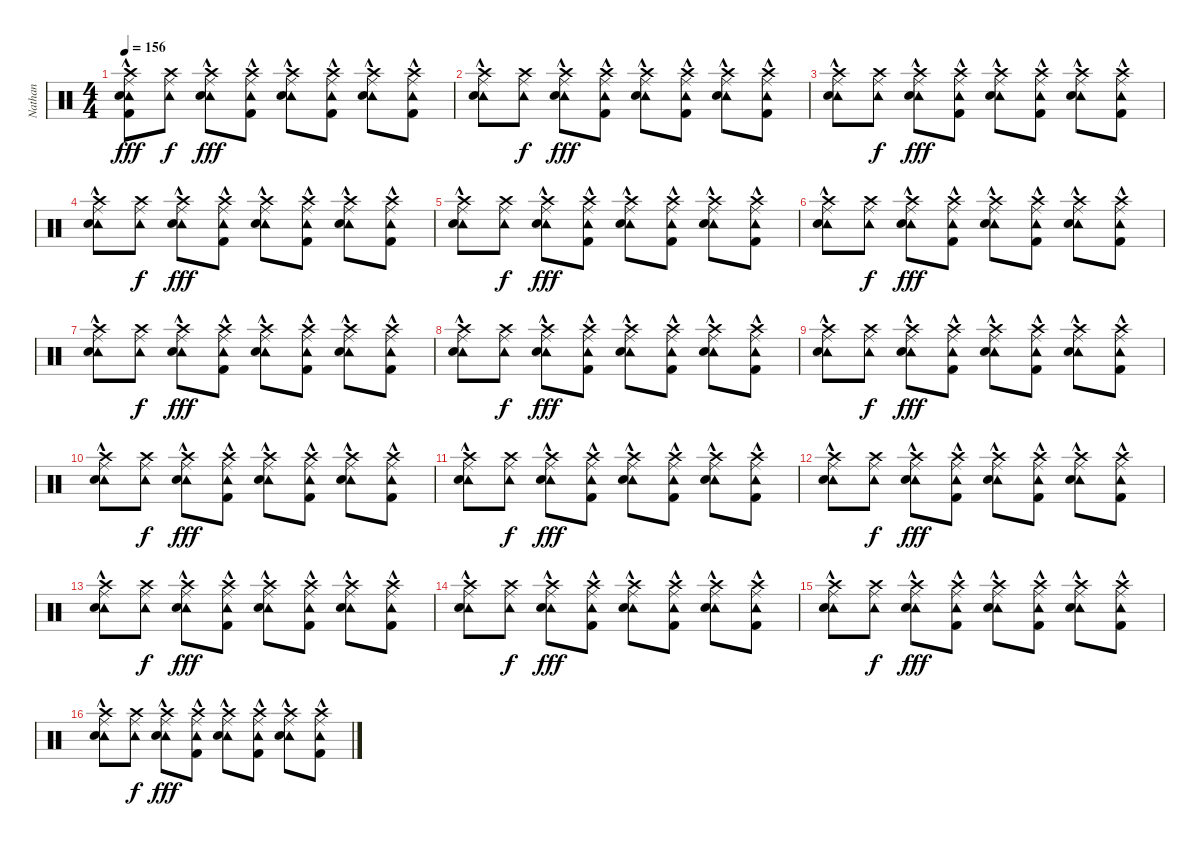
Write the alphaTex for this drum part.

\track ("Nathan" "Nathan") {instrument percussion}
\staff {score}
\articulation defaults
\ts (4 4)
\tempo 156
\clef neutral
\ks c
("Crash high (hit)" "Ride (middle)" "Tambourine (hit)" "Snare (hit) 2"{hac} "Kick (hit) 2"{hac}).8{dy fff} ("Crash high (hit)" "Ride (middle)" "Tambourine (hit)").8{dy f} ("Crash high (hit)" "Ride (middle)" "Tambourine (hit)" "Snare (hit) 2"{hac}).8{dy fff} ("Crash high (hit)" "Ride (middle)" "Tambourine (hit)" "Kick (hit) 2"{hac}).8 ("Crash high (hit)" "Ride (middle)" "Tambourine (hit)" "Snare (hit) 2"{hac}).8 ("Crash high (hit)" "Ride (middle)" "Tambourine (hit)" "Kick (hit) 2"{hac}).8 ("Crash high (hit)" "Ride (middle)" "Tambourine (hit)" "Snare (hit) 2"{hac}).8 ("Crash high (hit)" "Ride (middle)" "Tambourine (hit)" "Kick (hit) 2"{hac}).8 |
("Crash high (hit)" "Ride (middle)" "Tambourine (hit)" "Snare (hit) 2"{hac}).8 ("Crash high (hit)" "Ride (middle)" "Tambourine (hit)").8{dy f} ("Crash high (hit)" "Ride (middle)" "Tambourine (hit)" "Snare (hit) 2"{hac}).8{dy fff} ("Crash high (hit)" "Ride (middle)" "Tambourine (hit)" "Kick (hit) 2"{hac}).8 ("Crash high (hit)" "Ride (middle)" "Tambourine (hit)" "Snare (hit) 2"{hac}).8 ("Crash high (hit)" "Ride (middle)" "Tambourine (hit)" "Kick (hit) 2"{hac}).8 ("Crash high (hit)" "Ride (middle)" "Tambourine (hit)" "Snare (hit) 2"{hac}).8 ("Crash high (hit)" "Ride (middle)" "Tambourine (hit)" "Kick (hit) 2"{hac}).8 |
("Crash high (hit)" "Ride (middle)" "Tambourine (hit)" "Snare (hit) 2"{hac}).8 ("Crash high (hit)" "Ride (middle)" "Tambourine (hit)").8{dy f} ("Crash high (hit)" "Ride (middle)" "Tambourine (hit)" "Snare (hit) 2"{hac}).8{dy fff} ("Crash high (hit)" "Ride (middle)" "Tambourine (hit)" "Kick (hit) 2"{hac}).8 ("Crash high (hit)" "Ride (middle)" "Tambourine (hit)" "Snare (hit) 2"{hac}).8 ("Crash high (hit)" "Ride (middle)" "Tambourine (hit)" "Kick (hit) 2"{hac}).8 ("Crash high (hit)" "Ride (middle)" "Tambourine (hit)" "Snare (hit) 2"{hac}).8 ("Crash high (hit)" "Ride (middle)" "Tambourine (hit)" "Kick (hit) 2"{hac}).8 |
("Crash high (hit)" "Ride (middle)" "Tambourine (hit)" "Snare (hit) 2"{hac}).8 ("Crash high (hit)" "Ride (middle)" "Tambourine (hit)").8{dy f} ("Crash high (hit)" "Ride (middle)" "Tambourine (hit)" "Snare (hit) 2"{hac}).8{dy fff} ("Crash high (hit)" "Ride (middle)" "Tambourine (hit)" "Kick (hit) 2"{hac}).8 ("Crash high (hit)" "Ride (middle)" "Tambourine (hit)" "Snare (hit) 2"{hac}).8 ("Crash high (hit)" "Ride (middle)" "Tambourine (hit)" "Kick (hit) 2"{hac}).8 ("Crash high (hit)" "Ride (middle)" "Tambourine (hit)" "Snare (hit) 2"{hac}).8 ("Crash high (hit)" "Ride (middle)" "Tambourine (hit)" "Kick (hit) 2"{hac}).8 |
("Crash high (hit)" "Ride (middle)" "Tambourine (hit)" "Snare (hit) 2"{hac}).8 ("Crash high (hit)" "Ride (middle)" "Tambourine (hit)").8{dy f} ("Crash high (hit)" "Ride (middle)" "Tambourine (hit)" "Snare (hit) 2"{hac}).8{dy fff} ("Crash high (hit)" "Ride (middle)" "Tambourine (hit)" "Kick (hit) 2"{hac}).8 ("Crash high (hit)" "Ride (middle)" "Tambourine (hit)" "Snare (hit) 2"{hac}).8 ("Crash high (hit)" "Ride (middle)" "Tambourine (hit)" "Kick (hit) 2"{hac}).8 ("Crash high (hit)" "Ride (middle)" "Tambourine (hit)" "Snare (hit) 2"{hac}).8 ("Crash high (hit)" "Ride (middle)" "Tambourine (hit)" "Kick (hit) 2"{hac}).8 |
("Crash high (hit)" "Ride (middle)" "Tambourine (hit)" "Snare (hit) 2"{hac}).8 ("Crash high (hit)" "Ride (middle)" "Tambourine (hit)").8{dy f} ("Crash high (hit)" "Ride (middle)" "Tambourine (hit)" "Snare (hit) 2"{hac}).8{dy fff} ("Crash high (hit)" "Ride (middle)" "Tambourine (hit)" "Kick (hit) 2"{hac}).8 ("Crash high (hit)" "Ride (middle)" "Tambourine (hit)" "Snare (hit) 2"{hac}).8 ("Crash high (hit)" "Ride (middle)" "Tambourine (hit)" "Kick (hit) 2"{hac}).8 ("Crash high (hit)" "Ride (middle)" "Tambourine (hit)" "Snare (hit) 2"{hac}).8 ("Crash high (hit)" "Ride (middle)" "Tambourine (hit)" "Kick (hit) 2"{hac}).8 |
("Crash high (hit)" "Ride (middle)" "Tambourine (hit)" "Snare (hit) 2"{hac}).8 ("Crash high (hit)" "Ride (middle)" "Tambourine (hit)").8{dy f} ("Crash high (hit)" "Ride (middle)" "Tambourine (hit)" "Snare (hit) 2"{hac}).8{dy fff} ("Crash high (hit)" "Ride (middle)" "Tambourine (hit)" "Kick (hit) 2"{hac}).8 ("Crash high (hit)" "Ride (middle)" "Tambourine (hit)" "Snare (hit) 2"{hac}).8 ("Crash high (hit)" "Ride (middle)" "Tambourine (hit)" "Kick (hit) 2"{hac}).8 ("Crash high (hit)" "Ride (middle)" "Tambourine (hit)" "Snare (hit) 2"{hac}).8 ("Crash high (hit)" "Ride (middle)" "Tambourine (hit)" "Kick (hit) 2"{hac}).8 |
("Crash high (hit)" "Ride (middle)" "Tambourine (hit)" "Snare (hit) 2"{hac}).8 ("Crash high (hit)" "Ride (middle)" "Tambourine (hit)").8{dy f} ("Crash high (hit)" "Ride (middle)" "Tambourine (hit)" "Snare (hit) 2"{hac}).8{dy fff} ("Crash high (hit)" "Ride (middle)" "Tambourine (hit)" "Kick (hit) 2"{hac}).8 ("Crash high (hit)" "Ride (middle)" "Tambourine (hit)" "Snare (hit) 2"{hac}).8 ("Crash high (hit)" "Ride (middle)" "Tambourine (hit)" "Kick (hit) 2"{hac}).8 ("Crash high (hit)" "Ride (middle)" "Tambourine (hit)" "Snare (hit) 2"{hac}).8 ("Crash high (hit)" "Ride (middle)" "Tambourine (hit)" "Kick (hit) 2"{hac}).8 |
("Crash high (hit)" "Ride (middle)" "Tambourine (hit)" "Snare (hit) 2"{hac}).8 ("Crash high (hit)" "Ride (middle)" "Tambourine (hit)").8{dy f} ("Crash high (hit)" "Ride (middle)" "Tambourine (hit)" "Snare (hit) 2"{hac}).8{dy fff} ("Crash high (hit)" "Ride (middle)" "Tambourine (hit)" "Kick (hit) 2"{hac}).8 ("Crash high (hit)" "Ride (middle)" "Tambourine (hit)" "Snare (hit) 2"{hac}).8 ("Crash high (hit)" "Ride (middle)" "Tambourine (hit)" "Kick (hit) 2"{hac}).8 ("Crash high (hit)" "Ride (middle)" "Tambourine (hit)" "Snare (hit) 2"{hac}).8 ("Crash high (hit)" "Ride (middle)" "Tambourine (hit)" "Kick (hit) 2"{hac}).8 |
("Crash high (hit)" "Ride (middle)" "Tambourine (hit)" "Snare (hit) 2"{hac}).8 ("Crash high (hit)" "Ride (middle)" "Tambourine (hit)").8{dy f} ("Crash high (hit)" "Ride (middle)" "Tambourine (hit)" "Snare (hit) 2"{hac}).8{dy fff} ("Crash high (hit)" "Ride (middle)" "Tambourine (hit)" "Kick (hit) 2"{hac}).8 ("Crash high (hit)" "Ride (middle)" "Tambourine (hit)" "Snare (hit) 2"{hac}).8 ("Crash high (hit)" "Ride (middle)" "Tambourine (hit)" "Kick (hit) 2"{hac}).8 ("Crash high (hit)" "Ride (middle)" "Tambourine (hit)" "Snare (hit) 2"{hac}).8 ("Crash high (hit)" "Ride (middle)" "Tambourine (hit)" "Kick (hit) 2"{hac}).8 |
("Crash high (hit)" "Ride (middle)" "Tambourine (hit)" "Snare (hit) 2"{hac}).8 ("Crash high (hit)" "Ride (middle)" "Tambourine (hit)").8{dy f} ("Crash high (hit)" "Ride (middle)" "Tambourine (hit)" "Snare (hit) 2"{hac}).8{dy fff} ("Crash high (hit)" "Ride (middle)" "Tambourine (hit)" "Kick (hit) 2"{hac}).8 ("Crash high (hit)" "Ride (middle)" "Tambourine (hit)" "Snare (hit) 2"{hac}).8 ("Crash high (hit)" "Ride (middle)" "Tambourine (hit)" "Kick (hit) 2"{hac}).8 ("Crash high (hit)" "Ride (middle)" "Tambourine (hit)" "Snare (hit) 2"{hac}).8 ("Crash high (hit)" "Ride (middle)" "Tambourine (hit)" "Kick (hit) 2"{hac}).8 |
("Crash high (hit)" "Ride (middle)" "Tambourine (hit)" "Snare (hit) 2"{hac}).8 ("Crash high (hit)" "Ride (middle)" "Tambourine (hit)").8{dy f} ("Crash high (hit)" "Ride (middle)" "Tambourine (hit)" "Snare (hit) 2"{hac}).8{dy fff} ("Crash high (hit)" "Ride (middle)" "Tambourine (hit)" "Kick (hit) 2"{hac}).8 ("Crash high (hit)" "Ride (middle)" "Tambourine (hit)" "Snare (hit) 2"{hac}).8 ("Crash high (hit)" "Ride (middle)" "Tambourine (hit)" "Kick (hit) 2"{hac}).8 ("Crash high (hit)" "Ride (middle)" "Tambourine (hit)" "Snare (hit) 2"{hac}).8 ("Crash high (hit)" "Ride (middle)" "Tambourine (hit)" "Kick (hit) 2"{hac}).8 |
("Crash high (hit)" "Ride (middle)" "Tambourine (hit)" "Snare (hit) 2"{hac}).8 ("Crash high (hit)" "Ride (middle)" "Tambourine (hit)").8{dy f} ("Crash high (hit)" "Ride (middle)" "Tambourine (hit)" "Snare (hit) 2"{hac}).8{dy fff} ("Crash high (hit)" "Ride (middle)" "Tambourine (hit)" "Kick (hit) 2"{hac}).8 ("Crash high (hit)" "Ride (middle)" "Tambourine (hit)" "Snare (hit) 2"{hac}).8 ("Crash high (hit)" "Ride (middle)" "Tambourine (hit)" "Kick (hit) 2"{hac}).8 ("Crash high (hit)" "Ride (middle)" "Tambourine (hit)" "Snare (hit) 2"{hac}).8 ("Crash high (hit)" "Ride (middle)" "Tambourine (hit)" "Kick (hit) 2"{hac}).8 |
("Crash high (hit)" "Ride (middle)" "Tambourine (hit)" "Snare (hit) 2"{hac}).8 ("Crash high (hit)" "Ride (middle)" "Tambourine (hit)").8{dy f} ("Crash high (hit)" "Ride (middle)" "Tambourine (hit)" "Snare (hit) 2"{hac}).8{dy fff} ("Crash high (hit)" "Ride (middle)" "Tambourine (hit)" "Kick (hit) 2"{hac}).8 ("Crash high (hit)" "Ride (middle)" "Tambourine (hit)" "Snare (hit) 2"{hac}).8 ("Crash high (hit)" "Ride (middle)" "Tambourine (hit)" "Kick (hit) 2"{hac}).8 ("Crash high (hit)" "Ride (middle)" "Tambourine (hit)" "Snare (hit) 2"{hac}).8 ("Crash high (hit)" "Ride (middle)" "Tambourine (hit)" "Kick (hit) 2"{hac}).8 |
("Crash high (hit)" "Ride (middle)" "Tambourine (hit)" "Snare (hit) 2"{hac}).8 ("Crash high (hit)" "Ride (middle)" "Tambourine (hit)").8{dy f} ("Crash high (hit)" "Ride (middle)" "Tambourine (hit)" "Snare (hit) 2"{hac}).8{dy fff} ("Crash high (hit)" "Ride (middle)" "Tambourine (hit)" "Kick (hit) 2"{hac}).8 ("Crash high (hit)" "Ride (middle)" "Tambourine (hit)" "Snare (hit) 2"{hac}).8 ("Crash high (hit)" "Ride (middle)" "Tambourine (hit)" "Kick (hit) 2"{hac}).8 ("Crash high (hit)" "Ride (middle)" "Tambourine (hit)" "Snare (hit) 2"{hac}).8 ("Crash high (hit)" "Ride (middle)" "Tambourine (hit)" "Kick (hit) 2"{hac}).8 |
("Crash high (hit)" "Ride (middle)" "Tambourine (hit)" "Snare (hit) 2"{hac}).8 ("Crash high (hit)" "Ride (middle)" "Tambourine (hit)").8{dy f} ("Crash high (hit)" "Ride (middle)" "Tambourine (hit)" "Snare (hit) 2"{hac}).8{dy fff} ("Crash high (hit)" "Ride (middle)" "Tambourine (hit)" "Kick (hit) 2"{hac}).8 ("Crash high (hit)" "Ride (middle)" "Tambourine (hit)" "Snare (hit) 2"{hac}).8 ("Crash high (hit)" "Ride (middle)" "Tambourine (hit)" "Kick (hit) 2"{hac}).8 ("Crash high (hit)" "Ride (middle)" "Tambourine (hit)" "Snare (hit) 2"{hac}).8 ("Crash high (hit)" "Ride (middle)" "Tambourine (hit)" "Kick (hit) 2"{hac}).8
